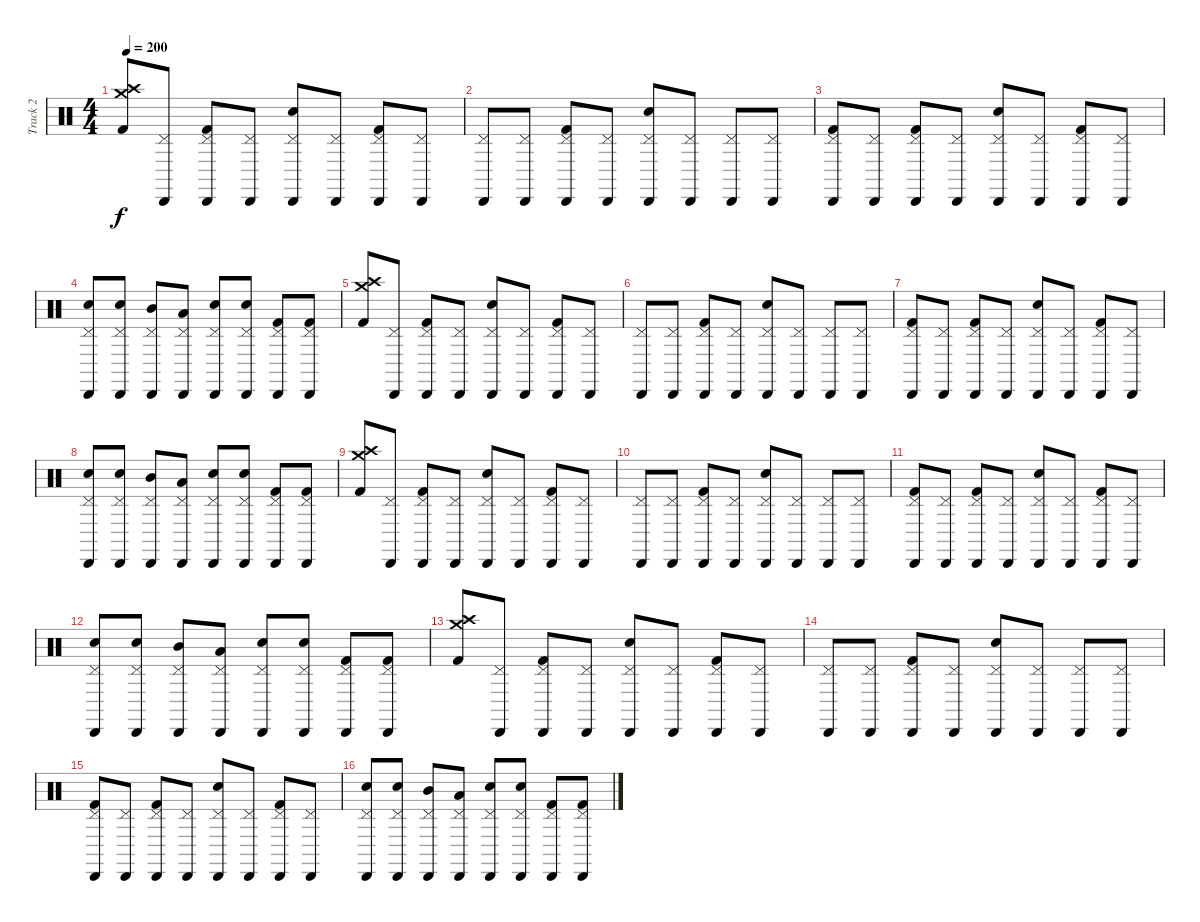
\track ("Track 2" "Track 2") {instrument percussion}
\staff {score}
\articulation defaults
\ts (4 4)
\tempo 200
\clef neutral
\ks c
("Crash high (hit)" "Crash medium (hit)" "Kick (hit) 2").8{dy f} ("Cabasa (hit)" "Pedal Hi-Hat (hit)").8 ("Cabasa (hit)" "Pedal Hi-Hat (hit)" "Kick (hit) 2").8 ("Cabasa (hit)" "Pedal Hi-Hat (hit)").8 ("Cabasa (hit)" "Pedal Hi-Hat (hit)" "Snare (hit) 2").8 ("Cabasa (hit)" "Pedal Hi-Hat (hit)").8 ("Cabasa (hit)" "Pedal Hi-Hat (hit)" "Kick (hit) 2").8 ("Cabasa (hit)" "Pedal Hi-Hat (hit)").8 |
("Cabasa (hit)" "Pedal Hi-Hat (hit)").8 ("Cabasa (hit)" "Pedal Hi-Hat (hit)").8 ("Cabasa (hit)" "Pedal Hi-Hat (hit)" "Kick (hit) 2").8 ("Cabasa (hit)" "Pedal Hi-Hat (hit)").8 ("Cabasa (hit)" "Pedal Hi-Hat (hit)" "Snare (hit) 2").8 ("Cabasa (hit)" "Pedal Hi-Hat (hit)").8 ("Cabasa (hit)" "Pedal Hi-Hat (hit)").8 ("Cabasa (hit)" "Pedal Hi-Hat (hit)").8 |
("Cabasa (hit)" "Pedal Hi-Hat (hit)" "Kick (hit) 2").8 ("Cabasa (hit)" "Pedal Hi-Hat (hit)").8 ("Cabasa (hit)" "Pedal Hi-Hat (hit)" "Kick (hit) 2").8 ("Cabasa (hit)" "Pedal Hi-Hat (hit)").8 ("Cabasa (hit)" "Pedal Hi-Hat (hit)" "Snare (hit) 2").8 ("Cabasa (hit)" "Pedal Hi-Hat (hit)").8 ("Cabasa (hit)" "Pedal Hi-Hat (hit)" "Kick (hit) 2").8 ("Cabasa (hit)" "Pedal Hi-Hat (hit)").8 |
("Cabasa (hit)" "Pedal Hi-Hat (hit)" "Snare (hit) 2").8 ("Cabasa (hit)" "Pedal Hi-Hat (hit)" "Snare (hit) 2").8 ("Cabasa (hit)" "Pedal Hi-Hat (hit)" "Mid Tom (hit)").8 ("Cabasa (hit)" "Pedal Hi-Hat (hit)" "Low Floor Tom (hit)").8 ("Cabasa (hit)" "Pedal Hi-Hat (hit)" "Snare (hit) 2").8 ("Cabasa (hit)" "Pedal Hi-Hat (hit)" "Snare (hit) 2").8 ("Cabasa (hit)" "Pedal Hi-Hat (hit)" "Kick (hit) 2").8 ("Cabasa (hit)" "Pedal Hi-Hat (hit)" "Kick (hit) 2").8 |
("Crash high (hit)" "Crash medium (hit)" "Kick (hit) 2").8 ("Cabasa (hit)" "Pedal Hi-Hat (hit)").8 ("Cabasa (hit)" "Pedal Hi-Hat (hit)" "Kick (hit) 2").8 ("Cabasa (hit)" "Pedal Hi-Hat (hit)").8 ("Cabasa (hit)" "Pedal Hi-Hat (hit)" "Snare (hit) 2").8 ("Cabasa (hit)" "Pedal Hi-Hat (hit)").8 ("Cabasa (hit)" "Pedal Hi-Hat (hit)" "Kick (hit) 2").8 ("Cabasa (hit)" "Pedal Hi-Hat (hit)").8 |
("Cabasa (hit)" "Pedal Hi-Hat (hit)").8 ("Cabasa (hit)" "Pedal Hi-Hat (hit)").8 ("Cabasa (hit)" "Pedal Hi-Hat (hit)" "Kick (hit) 2").8 ("Cabasa (hit)" "Pedal Hi-Hat (hit)").8 ("Cabasa (hit)" "Pedal Hi-Hat (hit)" "Snare (hit) 2").8 ("Cabasa (hit)" "Pedal Hi-Hat (hit)").8 ("Cabasa (hit)" "Pedal Hi-Hat (hit)").8 ("Cabasa (hit)" "Pedal Hi-Hat (hit)").8 |
("Cabasa (hit)" "Pedal Hi-Hat (hit)" "Kick (hit) 2").8 ("Cabasa (hit)" "Pedal Hi-Hat (hit)").8 ("Cabasa (hit)" "Pedal Hi-Hat (hit)" "Kick (hit) 2").8 ("Cabasa (hit)" "Pedal Hi-Hat (hit)").8 ("Cabasa (hit)" "Pedal Hi-Hat (hit)" "Snare (hit) 2").8 ("Cabasa (hit)" "Pedal Hi-Hat (hit)").8 ("Cabasa (hit)" "Pedal Hi-Hat (hit)" "Kick (hit) 2").8 ("Cabasa (hit)" "Pedal Hi-Hat (hit)").8 |
("Cabasa (hit)" "Pedal Hi-Hat (hit)" "Snare (hit) 2").8 ("Cabasa (hit)" "Pedal Hi-Hat (hit)" "Snare (hit) 2").8 ("Cabasa (hit)" "Pedal Hi-Hat (hit)" "Mid Tom (hit)").8 ("Cabasa (hit)" "Pedal Hi-Hat (hit)" "Low Floor Tom (hit)").8 ("Cabasa (hit)" "Pedal Hi-Hat (hit)" "Snare (hit) 2").8 ("Cabasa (hit)" "Pedal Hi-Hat (hit)" "Snare (hit) 2").8 ("Cabasa (hit)" "Pedal Hi-Hat (hit)" "Kick (hit) 2").8 ("Cabasa (hit)" "Pedal Hi-Hat (hit)" "Kick (hit) 2").8 |
("Crash high (hit)" "Crash medium (hit)" "Kick (hit) 2").8 ("Cabasa (hit)" "Pedal Hi-Hat (hit)").8 ("Cabasa (hit)" "Pedal Hi-Hat (hit)" "Kick (hit) 2").8 ("Cabasa (hit)" "Pedal Hi-Hat (hit)").8 ("Cabasa (hit)" "Pedal Hi-Hat (hit)" "Snare (hit) 2").8 ("Cabasa (hit)" "Pedal Hi-Hat (hit)").8 ("Cabasa (hit)" "Pedal Hi-Hat (hit)" "Kick (hit) 2").8 ("Cabasa (hit)" "Pedal Hi-Hat (hit)").8 |
("Cabasa (hit)" "Pedal Hi-Hat (hit)").8 ("Cabasa (hit)" "Pedal Hi-Hat (hit)").8 ("Cabasa (hit)" "Pedal Hi-Hat (hit)" "Kick (hit) 2").8 ("Cabasa (hit)" "Pedal Hi-Hat (hit)").8 ("Cabasa (hit)" "Pedal Hi-Hat (hit)" "Snare (hit) 2").8 ("Cabasa (hit)" "Pedal Hi-Hat (hit)").8 ("Cabasa (hit)" "Pedal Hi-Hat (hit)").8 ("Cabasa (hit)" "Pedal Hi-Hat (hit)").8 |
("Cabasa (hit)" "Pedal Hi-Hat (hit)" "Kick (hit) 2").8 ("Cabasa (hit)" "Pedal Hi-Hat (hit)").8 ("Cabasa (hit)" "Pedal Hi-Hat (hit)" "Kick (hit) 2").8 ("Cabasa (hit)" "Pedal Hi-Hat (hit)").8 ("Cabasa (hit)" "Pedal Hi-Hat (hit)" "Snare (hit) 2").8 ("Cabasa (hit)" "Pedal Hi-Hat (hit)").8 ("Cabasa (hit)" "Pedal Hi-Hat (hit)" "Kick (hit) 2").8 ("Cabasa (hit)" "Pedal Hi-Hat (hit)").8 |
("Cabasa (hit)" "Pedal Hi-Hat (hit)" "Snare (hit) 2").8 ("Cabasa (hit)" "Pedal Hi-Hat (hit)" "Snare (hit) 2").8 ("Cabasa (hit)" "Pedal Hi-Hat (hit)" "Mid Tom (hit)").8 ("Cabasa (hit)" "Pedal Hi-Hat (hit)" "Low Floor Tom (hit)").8 ("Cabasa (hit)" "Pedal Hi-Hat (hit)" "Snare (hit) 2").8 ("Cabasa (hit)" "Pedal Hi-Hat (hit)" "Snare (hit) 2").8 ("Cabasa (hit)" "Pedal Hi-Hat (hit)" "Kick (hit) 2").8 ("Cabasa (hit)" "Pedal Hi-Hat (hit)" "Kick (hit) 2").8 |
("Crash high (hit)" "Crash medium (hit)" "Kick (hit) 2").8 ("Cabasa (hit)" "Pedal Hi-Hat (hit)").8 ("Cabasa (hit)" "Pedal Hi-Hat (hit)" "Kick (hit) 2").8 ("Cabasa (hit)" "Pedal Hi-Hat (hit)").8 ("Cabasa (hit)" "Pedal Hi-Hat (hit)" "Snare (hit) 2").8 ("Cabasa (hit)" "Pedal Hi-Hat (hit)").8 ("Cabasa (hit)" "Pedal Hi-Hat (hit)" "Kick (hit) 2").8 ("Cabasa (hit)" "Pedal Hi-Hat (hit)").8 |
("Cabasa (hit)" "Pedal Hi-Hat (hit)").8 ("Cabasa (hit)" "Pedal Hi-Hat (hit)").8 ("Cabasa (hit)" "Pedal Hi-Hat (hit)" "Kick (hit) 2").8 ("Cabasa (hit)" "Pedal Hi-Hat (hit)").8 ("Cabasa (hit)" "Pedal Hi-Hat (hit)" "Snare (hit) 2").8 ("Cabasa (hit)" "Pedal Hi-Hat (hit)").8 ("Cabasa (hit)" "Pedal Hi-Hat (hit)").8 ("Cabasa (hit)" "Pedal Hi-Hat (hit)").8 |
("Cabasa (hit)" "Pedal Hi-Hat (hit)" "Kick (hit) 2").8 ("Cabasa (hit)" "Pedal Hi-Hat (hit)").8 ("Cabasa (hit)" "Pedal Hi-Hat (hit)" "Kick (hit) 2").8 ("Cabasa (hit)" "Pedal Hi-Hat (hit)").8 ("Cabasa (hit)" "Pedal Hi-Hat (hit)" "Snare (hit) 2").8 ("Cabasa (hit)" "Pedal Hi-Hat (hit)").8 ("Cabasa (hit)" "Pedal Hi-Hat (hit)" "Kick (hit) 2").8 ("Cabasa (hit)" "Pedal Hi-Hat (hit)").8 |
("Cabasa (hit)" "Pedal Hi-Hat (hit)" "Snare (hit) 2").8 ("Cabasa (hit)" "Pedal Hi-Hat (hit)" "Snare (hit) 2").8 ("Cabasa (hit)" "Pedal Hi-Hat (hit)" "Mid Tom (hit)").8 ("Cabasa (hit)" "Pedal Hi-Hat (hit)" "Low Floor Tom (hit)").8 ("Cabasa (hit)" "Pedal Hi-Hat (hit)" "Snare (hit) 2").8 ("Cabasa (hit)" "Pedal Hi-Hat (hit)" "Snare (hit) 2").8 ("Cabasa (hit)" "Pedal Hi-Hat (hit)" "Kick (hit) 2").8 ("Cabasa (hit)" "Pedal Hi-Hat (hit)" "Kick (hit) 2").8
